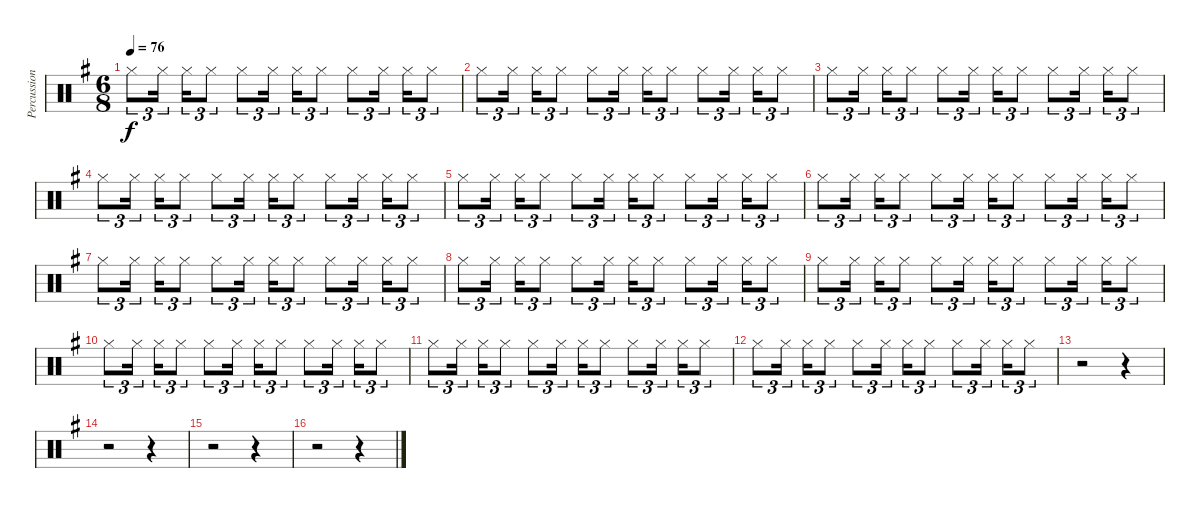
\track ("Percussions 2" "Percussion") {instrument percussion}
\staff {score}
\articulation defaults
\ts (6 8)
\tempo 76
\clef neutral
\ks g "Hi-Hat (closed)".8{tu (3 2) dy f} "Hi-Hat (closed)".16{tu (3 2)} "Hi-Hat (closed)".16{tu (3 2)} "Hi-Hat (closed)".8{tu (3 2)} "Hi-Hat (closed)".8{tu (3 2)} "Hi-Hat (closed)".16{tu (3 2)} "Hi-Hat (closed)".16{tu (3 2)} "Hi-Hat (closed)".8{tu (3 2)} "Hi-Hat (closed)".8{tu (3 2)} "Hi-Hat (closed)".16{tu (3 2)} "Hi-Hat (closed)".16{tu (3 2)} "Hi-Hat (closed)".8{tu (3 2)}
|
"Hi-Hat (closed)".8{tu (3 2)} "Hi-Hat (closed)".16{tu (3 2)} "Hi-Hat (closed)".16{tu (3 2)} "Hi-Hat (closed)".8{tu (3 2)} "Hi-Hat (closed)".8{tu (3 2)} "Hi-Hat (closed)".16{tu (3 2)} "Hi-Hat (closed)".16{tu (3 2)} "Hi-Hat (closed)".8{tu (3 2)} "Hi-Hat (closed)".8{tu (3 2)} "Hi-Hat (closed)".16{tu (3 2)} "Hi-Hat (closed)".16{tu (3 2)} "Hi-Hat (closed)".8{tu (3 2)} |
"Hi-Hat (closed)".8{tu (3 2)} "Hi-Hat (closed)".16{tu (3 2)} "Hi-Hat (closed)".16{tu (3 2)} "Hi-Hat (closed)".8{tu (3 2)} "Hi-Hat (closed)".8{tu (3 2)} "Hi-Hat (closed)".16{tu (3 2)} "Hi-Hat (closed)".16{tu (3 2)} "Hi-Hat (closed)".8{tu (3 2)} "Hi-Hat (closed)".8{tu (3 2)} "Hi-Hat (closed)".16{tu (3 2)} "Hi-Hat (closed)".16{tu (3 2)} "Hi-Hat (closed)".8{tu (3 2)} |
"Hi-Hat (closed)".8{tu (3 2)} "Hi-Hat (closed)".16{tu (3 2)} "Hi-Hat (closed)".16{tu (3 2)} "Hi-Hat (closed)".8{tu (3 2)} "Hi-Hat (closed)".8{tu (3 2)} "Hi-Hat (closed)".16{tu (3 2)} "Hi-Hat (closed)".16{tu (3 2)} "Hi-Hat (closed)".8{tu (3 2)} "Hi-Hat (closed)".8{tu (3 2)} "Hi-Hat (closed)".16{tu (3 2)} "Hi-Hat (closed)".16{tu (3 2)} "Hi-Hat (closed)".8{tu (3 2)} |
"Hi-Hat (closed)".8{tu (3 2)} "Hi-Hat (closed)".16{tu (3 2)} "Hi-Hat (closed)".16{tu (3 2)} "Hi-Hat (closed)".8{tu (3 2)} "Hi-Hat (closed)".8{tu (3 2)} "Hi-Hat (closed)".16{tu (3 2)} "Hi-Hat (closed)".16{tu (3 2)} "Hi-Hat (closed)".8{tu (3 2)} "Hi-Hat (closed)".8{tu (3 2)} "Hi-Hat (closed)".16{tu (3 2)} "Hi-Hat (closed)".16{tu (3 2)} "Hi-Hat (closed)".8{tu (3 2)} |
"Hi-Hat (closed)".8{tu (3 2)} "Hi-Hat (closed)".16{tu (3 2)} "Hi-Hat (closed)".16{tu (3 2)} "Hi-Hat (closed)".8{tu (3 2)} "Hi-Hat (closed)".8{tu (3 2)} "Hi-Hat (closed)".16{tu (3 2)} "Hi-Hat (closed)".16{tu (3 2)} "Hi-Hat (closed)".8{tu (3 2)} "Hi-Hat (closed)".8{tu (3 2)} "Hi-Hat (closed)".16{tu (3 2)} "Hi-Hat (closed)".16{tu (3 2)} "Hi-Hat (closed)".8{tu (3 2)} |
"Hi-Hat (closed)".8{tu (3 2)} "Hi-Hat (closed)".16{tu (3 2)} "Hi-Hat (closed)".16{tu (3 2)} "Hi-Hat (closed)".8{tu (3 2)} "Hi-Hat (closed)".8{tu (3 2)} "Hi-Hat (closed)".16{tu (3 2)} "Hi-Hat (closed)".16{tu (3 2)} "Hi-Hat (closed)".8{tu (3 2)} "Hi-Hat (closed)".8{tu (3 2)} "Hi-Hat (closed)".16{tu (3 2)} "Hi-Hat (closed)".16{tu (3 2)} "Hi-Hat (closed)".8{tu (3 2)} |
"Hi-Hat (closed)".8{tu (3 2)} "Hi-Hat (closed)".16{tu (3 2)} "Hi-Hat (closed)".16{tu (3 2)} "Hi-Hat (closed)".8{tu (3 2)} "Hi-Hat (closed)".8{tu (3 2)} "Hi-Hat (closed)".16{tu (3 2)} "Hi-Hat (closed)".16{tu (3 2)} "Hi-Hat (closed)".8{tu (3 2)} "Hi-Hat (closed)".8{tu (3 2)} "Hi-Hat (closed)".16{tu (3 2)} "Hi-Hat (closed)".16{tu (3 2)} "Hi-Hat (closed)".8{tu (3 2)} |
"Hi-Hat (closed)".8{tu (3 2)} "Hi-Hat (closed)".16{tu (3 2)} "Hi-Hat (closed)".16{tu (3 2)} "Hi-Hat (closed)".8{tu (3 2)} "Hi-Hat (closed)".8{tu (3 2)} "Hi-Hat (closed)".16{tu (3 2)} "Hi-Hat (closed)".16{tu (3 2)} "Hi-Hat (closed)".8{tu (3 2)} "Hi-Hat (closed)".8{tu (3 2)} "Hi-Hat (closed)".16{tu (3 2)} "Hi-Hat (closed)".16{tu (3 2)} "Hi-Hat (closed)".8{tu (3 2)} |
"Hi-Hat (closed)".8{tu (3 2)} "Hi-Hat (closed)".16{tu (3 2)} "Hi-Hat (closed)".16{tu (3 2)} "Hi-Hat (closed)".8{tu (3 2)} "Hi-Hat (closed)".8{tu (3 2)} "Hi-Hat (closed)".16{tu (3 2)} "Hi-Hat (closed)".16{tu (3 2)} "Hi-Hat (closed)".8{tu (3 2)} "Hi-Hat (closed)".8{tu (3 2)} "Hi-Hat (closed)".16{tu (3 2)} "Hi-Hat (closed)".16{tu (3 2)} "Hi-Hat (closed)".8{tu (3 2)} |
"Hi-Hat (closed)".8{tu (3 2)} "Hi-Hat (closed)".16{tu (3 2)} "Hi-Hat (closed)".16{tu (3 2)} "Hi-Hat (closed)".8{tu (3 2)} "Hi-Hat (closed)".8{tu (3 2)} "Hi-Hat (closed)".16{tu (3 2)} "Hi-Hat (closed)".16{tu (3 2)} "Hi-Hat (closed)".8{tu (3 2)} "Hi-Hat (closed)".8{tu (3 2)} "Hi-Hat (closed)".16{tu (3 2)} "Hi-Hat (closed)".16{tu (3 2)} "Hi-Hat (closed)".8{tu (3 2)} |
"Hi-Hat (closed)".8{tu (3 2)} "Hi-Hat (closed)".16{tu (3 2)} "Hi-Hat (closed)".16{tu (3 2)} "Hi-Hat (closed)".8{tu (3 2)} "Hi-Hat (closed)".8{tu (3 2)} "Hi-Hat (closed)".16{tu (3 2)} "Hi-Hat (closed)".16{tu (3 2)} "Hi-Hat (closed)".8{tu (3 2)} "Hi-Hat (closed)".8{tu (3 2)} "Hi-Hat (closed)".16{tu (3 2)} "Hi-Hat (closed)".16{tu (3 2)} "Hi-Hat (closed)".8{tu (3 2)} |
r.2 r.4 |
r.2 r.4 |
r.2 r.4 |
r.2 r.4
